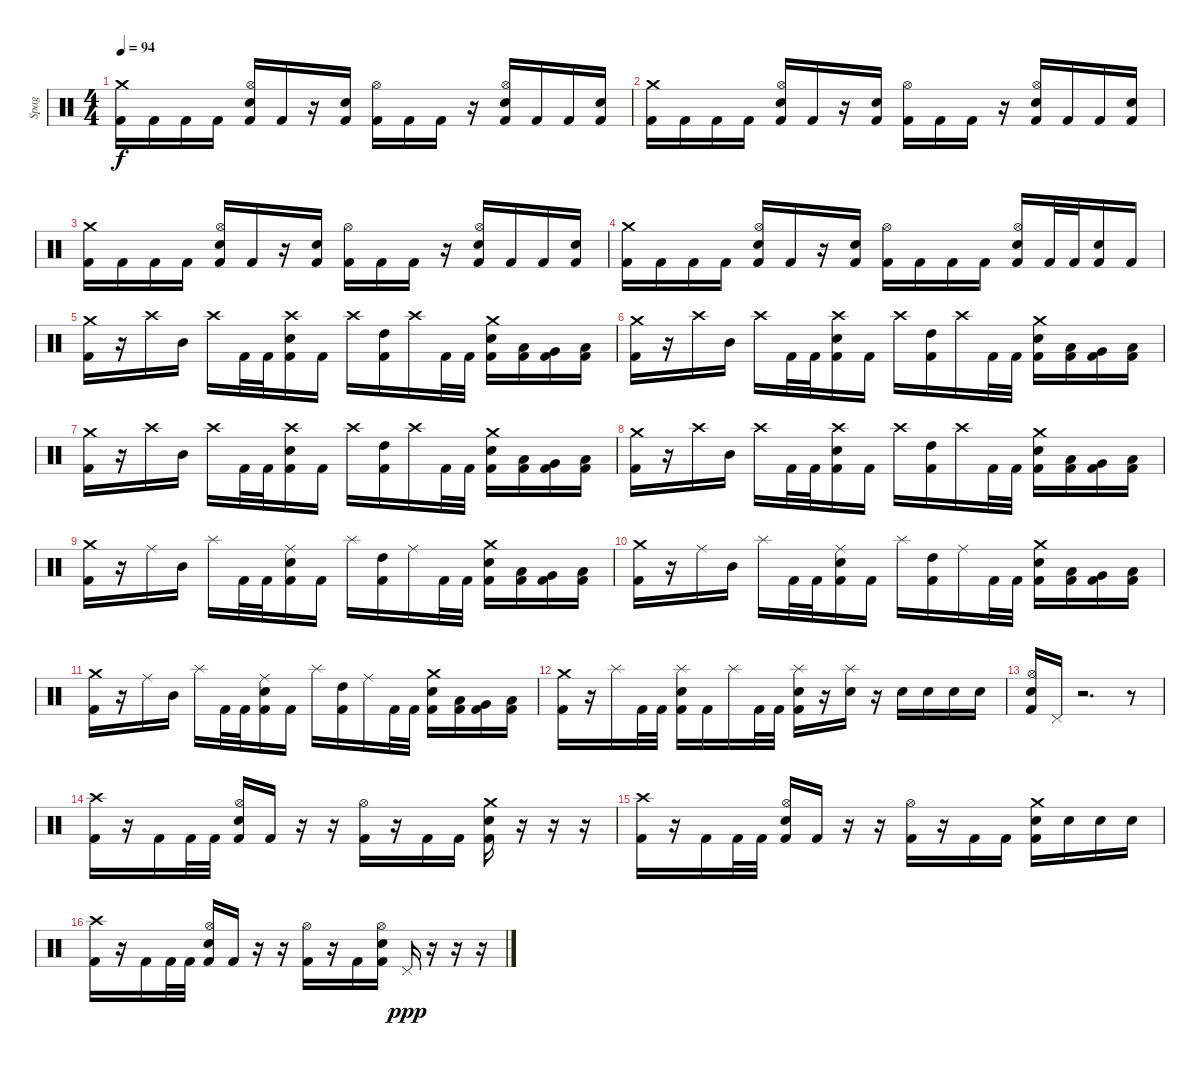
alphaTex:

\track ("Spag" "Spag") {instrument percussion}
\staff {score}
\articulation defaults
\ts (4 4)
\tempo 94
\clef neutral
\ks c
("Crash medium (hit)" "Kick (hit) 2").16{dy f} "Kick (hit) 2".16 "Kick (hit) 2".16 "Kick (hit) 2".16 ("Hi-Hat (open)" "Electric Snare (hit)" "Kick (hit) 2").16 "Kick (hit) 2".16 r.16 ("Electric Snare (hit)" "Kick (hit) 2").16 ("Hi-Hat (open)" "Kick (hit) 2").16 "Kick (hit) 2".16 "Kick (hit) 2".16 r.16 ("Hi-Hat (open)" "Electric Snare (hit)" "Kick (hit) 2").16 "Kick (hit) 2".16 "Kick (hit) 2".16 ("Electric Snare (hit)" "Kick (hit) 2").16 |
("Crash medium (hit)" "Kick (hit) 2").16 "Kick (hit) 2".16 "Kick (hit) 2".16 "Kick (hit) 2".16 ("Hi-Hat (open)" "Electric Snare (hit)" "Kick (hit) 2").16 "Kick (hit) 2".16 r.16 ("Electric Snare (hit)" "Kick (hit) 2").16 ("Hi-Hat (open)" "Kick (hit) 2").16 "Kick (hit) 2".16 "Kick (hit) 2".16 r.16 ("Hi-Hat (open)" "Electric Snare (hit)" "Kick (hit) 2").16 "Kick (hit) 2".16 "Kick (hit) 2".16 ("Electric Snare (hit)" "Kick (hit) 2").16 |
("Crash medium (hit)" "Kick (hit) 2").16 "Kick (hit) 2".16 "Kick (hit) 2".16 "Kick (hit) 2".16 ("Hi-Hat (open)" "Electric Snare (hit)" "Kick (hit) 2").16 "Kick (hit) 2".16 r.16 ("Electric Snare (hit)" "Kick (hit) 2").16 ("Hi-Hat (open)" "Kick (hit) 2").16 "Kick (hit) 2".16 "Kick (hit) 2".16 r.16 ("Hi-Hat (open)" "Electric Snare (hit)" "Kick (hit) 2").16 "Kick (hit) 2".16 "Kick (hit) 2".16 ("Electric Snare (hit)" "Kick (hit) 2").16 |
("Crash medium (hit)" "Kick (hit) 2").16 "Kick (hit) 2".16 "Kick (hit) 2".16 "Kick (hit) 2".16 ("Hi-Hat (open)" "Electric Snare (hit)" "Kick (hit) 2").16 "Kick (hit) 2".16 r.16 ("Electric Snare (hit)" "Kick (hit) 2").16 ("Hi-Hat (open)" "Kick (hit) 2").16 "Kick (hit) 2".16 "Kick (hit) 2".16 "Kick (hit) 2".16 ("Hi-Hat (open)" "Electric Snare (hit)" "Kick (hit) 2").16 "Kick (hit) 2".32 "Kick (hit) 2".32 ("Electric Snare (hit)" "Kick (hit) 2").16 "Kick (hit) 2".16 |
("Crash medium (hit)" "Kick (hit) 2").16 r.16 "Crash high (hit)".16 "Mid Tom (hit)".16 "Crash high (hit)".16 "Kick (hit) 2".32 "Kick (hit) 2".32 ("Crash high (hit)" "Electric Snare (hit)" "Kick (hit) 2").16 "Kick (hit) 2".16 "Crash high (hit)".16 ("High Tom (hit)" "Kick (hit) 2").16 "Crash high (hit)".16 "Kick (hit) 2".32 "Kick (hit) 2".32 ("Crash medium (hit)" "Electric Snare (hit)" "Kick (hit) 2").16 ("Low Tom (hit)" "Kick (hit) 2").16 ("Very Low Tom (hit)" "Kick (hit) 2").16 ("Low Floor Tom (hit)" "Kick (hit) 2").16 |
("Crash medium (hit)" "Kick (hit) 2").16 r.16 "Crash high (hit)".16 "Mid Tom (hit)".16 "Crash high (hit)".16 "Kick (hit) 2".32 "Kick (hit) 2".32 ("Crash high (hit)" "Electric Snare (hit)" "Kick (hit) 2").16 "Kick (hit) 2".16 "Crash high (hit)".16 ("High Tom (hit)" "Kick (hit) 2").16 "Crash high (hit)".16 "Kick (hit) 2".32 "Kick (hit) 2".32 ("Crash medium (hit)" "Electric Snare (hit)" "Kick (hit) 2").16 ("Low Tom (hit)" "Kick (hit) 2").16 ("Very Low Tom (hit)" "Kick (hit) 2").16 ("Low Floor Tom (hit)" "Kick (hit) 2").16 |
("Crash medium (hit)" "Kick (hit) 2").16 r.16 "Crash high (hit)".16 "Mid Tom (hit)".16 "Crash high (hit)".16 "Kick (hit) 2".32 "Kick (hit) 2".32 ("Crash high (hit)" "Electric Snare (hit)" "Kick (hit) 2").16 "Kick (hit) 2".16 "Crash high (hit)".16 ("High Tom (hit)" "Kick (hit) 2").16 "Crash high (hit)".16 "Kick (hit) 2".32 "Kick (hit) 2".32 ("Crash medium (hit)" "Electric Snare (hit)" "Kick (hit) 2").16 ("Low Tom (hit)" "Kick (hit) 2").16 ("Very Low Tom (hit)" "Kick (hit) 2").16 ("Low Floor Tom (hit)" "Kick (hit) 2").16 |
("Crash medium (hit)" "Kick (hit) 2").16 r.16 "Crash high (hit)".16 "Mid Tom (hit)".16 "Crash high (hit)".16 "Kick (hit) 2".32 "Kick (hit) 2".32 ("Crash high (hit)" "Electric Snare (hit)" "Kick (hit) 2").16 "Kick (hit) 2".16 "Crash high (hit)".16 ("High Tom (hit)" "Kick (hit) 2").16 "Crash high (hit)".16 "Kick (hit) 2".32 "Kick (hit) 2".32 ("Crash medium (hit)" "Electric Snare (hit)" "Kick (hit) 2").16 ("Low Tom (hit)" "Kick (hit) 2").16 ("Very Low Tom (hit)" "Kick (hit) 2").16 ("Low Floor Tom (hit)" "Kick (hit) 2").16 |
("Crash medium (hit)" "Kick (hit) 2").16 r.16 "Ride (middle)".16 "Mid Tom (hit)".16 "Splash (hit)".16 "Kick (hit) 2".32 "Kick (hit) 2".32 ("Ride (middle)" "Electric Snare (hit)" "Kick (hit) 2").16 "Kick (hit) 2".16 "Splash (hit)".16 ("High Tom (hit)" "Kick (hit) 2").16 "Ride (middle)".16 "Kick (hit) 2".32 "Kick (hit) 2".32 ("Crash medium (hit)" "Electric Snare (hit)" "Kick (hit) 2").16 ("Low Tom (hit)" "Kick (hit) 2").16 ("Very Low Tom (hit)" "Kick (hit) 2").16 ("Low Floor Tom (hit)" "Kick (hit) 2").16 |
("Crash medium (hit)" "Kick (hit) 2").16 r.16 "Ride (middle)".16 "Mid Tom (hit)".16 "Splash (hit)".16 "Kick (hit) 2".32 "Kick (hit) 2".32 ("Ride (middle)" "Electric Snare (hit)" "Kick (hit) 2").16 "Kick (hit) 2".16 "Splash (hit)".16 ("High Tom (hit)" "Kick (hit) 2").16 "Ride (middle)".16 "Kick (hit) 2".32 "Kick (hit) 2".32 ("Crash medium (hit)" "Electric Snare (hit)" "Kick (hit) 2").16 ("Low Tom (hit)" "Kick (hit) 2").16 ("Very Low Tom (hit)" "Kick (hit) 2").16 ("Low Floor Tom (hit)" "Kick (hit) 2").16 |
("Crash medium (hit)" "Kick (hit) 2").16 r.16 "Ride (middle)".16 "Mid Tom (hit)".16 "Splash (hit)".16 "Kick (hit) 2".32 "Kick (hit) 2".32 ("Ride (middle)" "Electric Snare (hit)" "Kick (hit) 2").16 "Kick (hit) 2".16 "Splash (hit)".16 ("High Tom (hit)" "Kick (hit) 2").16 "Ride (middle)".16 "Kick (hit) 2".32 "Kick (hit) 2".32 ("Crash medium (hit)" "Electric Snare (hit)" "Kick (hit) 2").16 ("Low Tom (hit)" "Kick (hit) 2").16 ("Very Low Tom (hit)" "Kick (hit) 2").16 ("Low Floor Tom (hit)" "Kick (hit) 2").16 |
("Crash medium (hit)" "Kick (hit) 2").16 r.16 "Splash (hit)".16 "Kick (hit) 2".32 "Kick (hit) 2".32 ("Splash (hit)" "Electric Snare (hit)" "Kick (hit) 2").16 "Kick (hit) 2".16 "Splash (hit)".16 "Kick (hit) 2".32 "Kick (hit) 2".32 ("Splash (hit)" "Electric Snare (hit)" "Kick (hit) 2").16 r.16 ("Splash (hit)" "Electric Snare (hit)").16 r.16 "Electric Snare (hit)".16 "Electric Snare (hit)".16 "Electric Snare (hit)".16 "Electric Snare (hit)".16 |
("Hi-Hat (open)" "Electric Snare (hit)" "Kick (hit) 2").16 "Pedal Hi-Hat (hit)".16 r.2{d} r.8 |
("Crash high (hit)" "Kick (hit) 2").16 r.16 "Kick (hit) 2".16 "Kick (hit) 2".32 "Kick (hit) 2".32 ("Hi-Hat (open)" "Electric Snare (hit)" "Kick (hit) 2").16 "Kick (hit) 2".16 r.16 r.16 ("Hi-Hat (open)" "Kick (hit) 2").16 r.16 "Kick (hit) 2".16 "Kick (hit) 2".16 ("Crash medium (hit)" "Electric Snare (hit)" "Kick (hit) 2").16 r.16 r.16 r.16 |
("Crash high (hit)" "Kick (hit) 2").16 r.16 "Kick (hit) 2".16 "Kick (hit) 2".32 "Kick (hit) 2".32 ("Hi-Hat (open)" "Electric Snare (hit)" "Kick (hit) 2").16 "Kick (hit) 2".16 r.16 r.16 ("Hi-Hat (open)" "Kick (hit) 2").16 r.16 "Kick (hit) 2".16 "Kick (hit) 2".16 ("Crash medium (hit)" "Electric Snare (hit)" "Kick (hit) 2").16 "Electric Snare (hit)".16 "Electric Snare (hit)".16 "Electric Snare (hit)".16 |
("Crash high (hit)" "Kick (hit) 2").16 r.16 "Kick (hit) 2".16 "Kick (hit) 2".32 "Kick (hit) 2".32 ("Hi-Hat (open)" "Electric Snare (hit)" "Kick (hit) 2").16 "Kick (hit) 2".16 r.16 r.16 ("Hi-Hat (open)" "Kick (hit) 2").16 r.16 "Kick (hit) 2".16 ("Hi-Hat (open)" "Electric Snare (hit)" "Kick (hit) 2").16 "Pedal Hi-Hat (hit)".16{dy ppp} r.16 r.16 r.16
